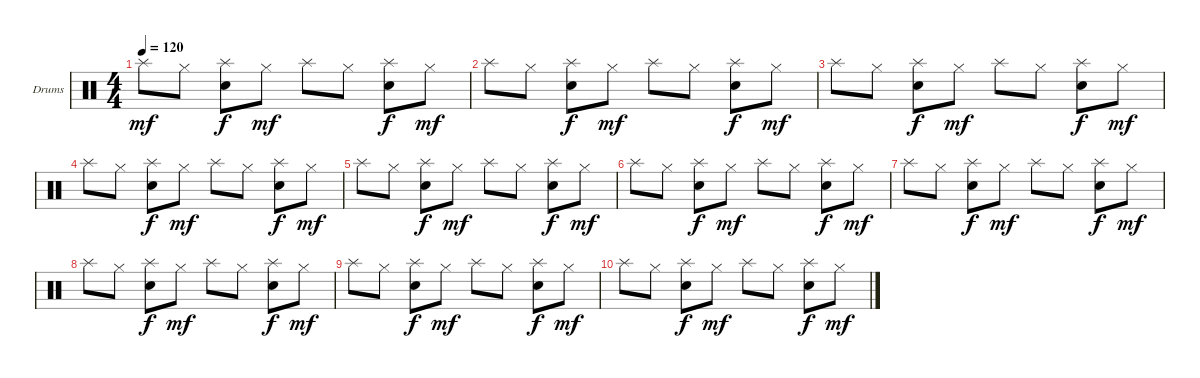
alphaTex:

\bracketExtendMode groupsimilarinstruments
\firstSystemTrackNameOrientation horizontal
\otherSystemsTrackNameOrientation horizontal
\track ("Drumkit" "Drums") {instrument percussion}
\staff {score}
\articulation defaults
\ts (4 4)
\tempo 120
\clef neutral
\ks c "Splash (hit)".8{dy mf} "Hi-Hat (closed)".8
("Snare (hit) 2" "Splash (hit)").8{dy f} "Hi-Hat (closed)".8{dy mf} "Splash (hit)".8 "Hi-Hat (closed)".8 ("Snare (hit) 2" "Splash (hit)").8{dy f} "Hi-Hat (closed)".8{dy mf} |
"Splash (hit)".8 "Hi-Hat (closed)".8 ("Snare (hit) 2" "Splash (hit)").8{dy f} "Hi-Hat (closed)".8{dy mf} "Splash (hit)".8 "Hi-Hat (closed)".8 ("Snare (hit) 2" "Splash (hit)").8{dy f} "Hi-Hat (closed)".8{dy mf} |
"Splash (hit)".8 "Hi-Hat (closed)".8 ("Snare (hit) 2" "Splash (hit)").8{dy f} "Hi-Hat (closed)".8{dy mf} "Splash (hit)".8 "Hi-Hat (closed)".8 ("Snare (hit) 2" "Splash (hit)").8{dy f} "Hi-Hat (closed)".8{dy mf} |
"Splash (hit)".8 "Hi-Hat (closed)".8 ("Snare (hit) 2" "Splash (hit)").8{dy f} "Hi-Hat (closed)".8{dy mf} "Splash (hit)".8 "Hi-Hat (closed)".8 ("Snare (hit) 2" "Splash (hit)").8{dy f} "Hi-Hat (closed)".8{dy mf} |
"Splash (hit)".8 "Hi-Hat (closed)".8 ("Snare (hit) 2" "Splash (hit)").8{dy f} "Hi-Hat (closed)".8{dy mf} "Splash (hit)".8 "Hi-Hat (closed)".8 ("Snare (hit) 2" "Splash (hit)").8{dy f} "Hi-Hat (closed)".8{dy mf} |
"Splash (hit)".8 "Hi-Hat (closed)".8 ("Snare (hit) 2" "Splash (hit)").8{dy f} "Hi-Hat (closed)".8{dy mf} "Splash (hit)".8 "Hi-Hat (closed)".8 ("Snare (hit) 2" "Splash (hit)").8{dy f} "Hi-Hat (closed)".8{dy mf} |
"Splash (hit)".8 "Hi-Hat (closed)".8 ("Snare (hit) 2" "Splash (hit)").8{dy f} "Hi-Hat (closed)".8{dy mf} "Splash (hit)".8 "Hi-Hat (closed)".8 ("Snare (hit) 2" "Splash (hit)").8{dy f} "Hi-Hat (closed)".8{dy mf} |
"Splash (hit)".8 "Hi-Hat (closed)".8 ("Snare (hit) 2" "Splash (hit)").8{dy f} "Hi-Hat (closed)".8{dy mf} "Splash (hit)".8 "Hi-Hat (closed)".8 ("Snare (hit) 2" "Splash (hit)").8{dy f} "Hi-Hat (closed)".8{dy mf} |
"Splash (hit)".8 "Hi-Hat (closed)".8 ("Snare (hit) 2" "Splash (hit)").8{dy f} "Hi-Hat (closed)".8{dy mf} "Splash (hit)".8 "Hi-Hat (closed)".8 ("Snare (hit) 2" "Splash (hit)").8{dy f} "Hi-Hat (closed)".8{dy mf} |
"Splash (hit)".8 "Hi-Hat (closed)".8 ("Snare (hit) 2" "Splash (hit)").8{dy f} "Hi-Hat (closed)".8{dy mf} "Splash (hit)".8 "Hi-Hat (closed)".8 ("Snare (hit) 2" "Splash (hit)").8{dy f} "Hi-Hat (closed)".8{dy mf}
